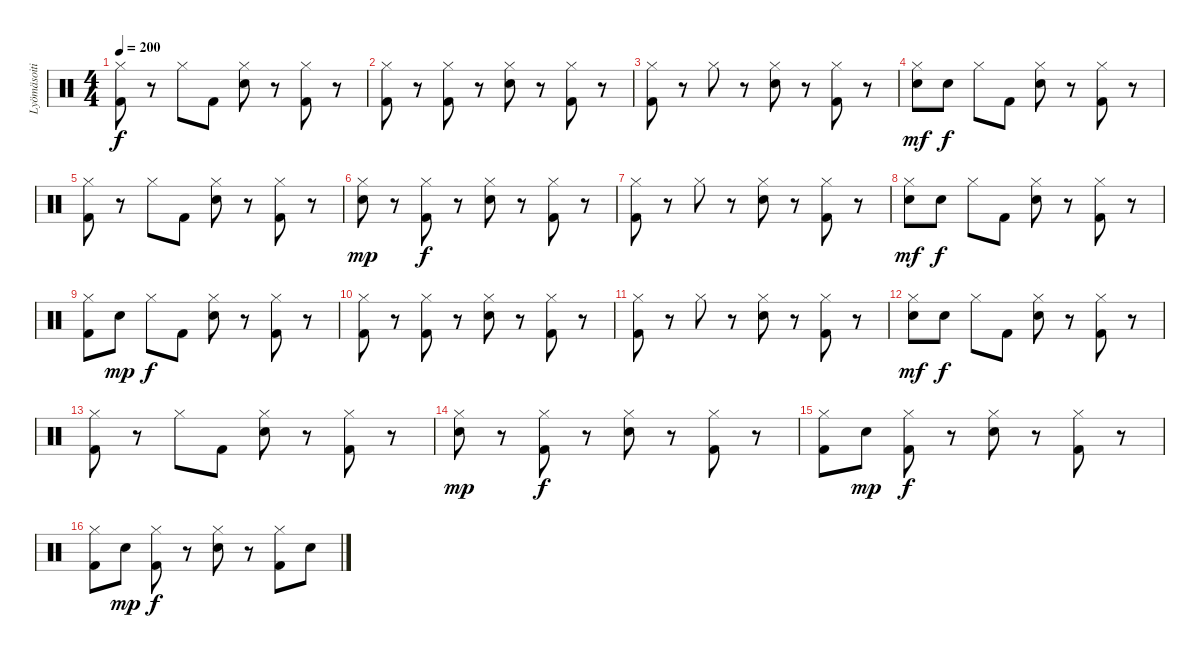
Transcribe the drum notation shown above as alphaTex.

\track ("Lyömäsoitin" "Lyömäsoiti") {instrument percussion}
\staff {score}
\articulation defaults
\ts (4 4)
\tempo 200
\clef neutral
\ks c
("Kick (hit) 2" "Hi-Hat (closed)").8{dy f} r.8 "Hi-Hat (closed)".8 "Kick (hit) 2".8 ("Snare (hit) 2" "Hi-Hat (closed)").8 r.8 ("Hi-Hat (closed)" "Kick (hit) 2").8 r.8 |
("Kick (hit) 2" "Hi-Hat (closed)").8 r.8 ("Kick (hit) 2" "Hi-Hat (closed)").8 r.8 ("Snare (hit) 2" "Hi-Hat (closed)").8 r.8 ("Kick (hit) 2" "Hi-Hat (closed)").8 r.8 |
("Kick (hit) 2" "Hi-Hat (closed)").8 r.8 "Hi-Hat (closed)".8 r.8 ("Snare (hit) 2" "Hi-Hat (closed)").8 r.8 ("Hi-Hat (closed)" "Kick (hit) 2").8 r.8 |
("Snare (hit) 2" "Hi-Hat (closed)").8{dy mf} "Snare (hit) 2".8{dy f} "Hi-Hat (closed)".8 "Kick (hit) 2".8 ("Snare (hit) 2" "Hi-Hat (closed)").8 r.8 ("Kick (hit) 2" "Hi-Hat (closed)").8 r.8 |
("Kick (hit) 2" "Hi-Hat (closed)").8 r.8 "Hi-Hat (closed)".8 "Kick (hit) 2".8 ("Snare (hit) 2" "Hi-Hat (closed)").8 r.8 ("Hi-Hat (closed)" "Kick (hit) 2").8 r.8 |
("Snare (hit) 2" "Hi-Hat (closed)").8{dy mp} r.8 ("Kick (hit) 2" "Hi-Hat (closed)").8{dy f} r.8 ("Snare (hit) 2" "Hi-Hat (closed)").8 r.8 ("Kick (hit) 2" "Hi-Hat (closed)").8 r.8 |
("Kick (hit) 2" "Hi-Hat (closed)").8 r.8 "Hi-Hat (closed)".8 r.8 ("Snare (hit) 2" "Hi-Hat (closed)").8 r.8 ("Hi-Hat (closed)" "Kick (hit) 2").8 r.8 |
("Snare (hit) 2" "Hi-Hat (closed)").8{dy mf} "Snare (hit) 2".8{dy f} "Hi-Hat (closed)".8 "Kick (hit) 2".8 ("Snare (hit) 2" "Hi-Hat (closed)").8 r.8 ("Kick (hit) 2" "Hi-Hat (closed)").8 r.8 |
("Kick (hit) 2" "Hi-Hat (closed)").8 "Snare (hit) 2".8{dy mp} "Hi-Hat (closed)".8{dy f} "Kick (hit) 2".8 ("Snare (hit) 2" "Hi-Hat (closed)").8 r.8 ("Hi-Hat (closed)" "Kick (hit) 2").8 r.8 |
("Kick (hit) 2" "Hi-Hat (closed)").8 r.8 ("Kick (hit) 2" "Hi-Hat (closed)").8 r.8 ("Snare (hit) 2" "Hi-Hat (closed)").8 r.8 ("Kick (hit) 2" "Hi-Hat (closed)").8 r.8 |
("Kick (hit) 2" "Hi-Hat (closed)").8 r.8 "Hi-Hat (closed)".8 r.8 ("Snare (hit) 2" "Hi-Hat (closed)").8 r.8 ("Hi-Hat (closed)" "Kick (hit) 2").8 r.8 |
("Snare (hit) 2" "Hi-Hat (closed)").8{dy mf} "Snare (hit) 2".8{dy f} "Hi-Hat (closed)".8 "Kick (hit) 2".8 ("Snare (hit) 2" "Hi-Hat (closed)").8 r.8 ("Kick (hit) 2" "Hi-Hat (closed)").8 r.8 |
("Kick (hit) 2" "Hi-Hat (closed)").8 r.8 "Hi-Hat (closed)".8 "Kick (hit) 2".8 ("Snare (hit) 2" "Hi-Hat (closed)").8 r.8 ("Hi-Hat (closed)" "Kick (hit) 2").8 r.8 |
("Snare (hit) 2" "Hi-Hat (closed)").8{dy mp} r.8 ("Kick (hit) 2" "Hi-Hat (closed)").8{dy f} r.8 ("Snare (hit) 2" "Hi-Hat (closed)").8 r.8 ("Kick (hit) 2" "Hi-Hat (closed)").8 r.8 |
("Kick (hit) 2" "Hi-Hat (closed)").8 "Snare (hit) 2".8{dy mp} ("Kick (hit) 2" "Hi-Hat (closed)").8{dy f} r.8 ("Snare (hit) 2" "Hi-Hat (closed)").8 r.8 ("Hi-Hat (closed)" "Kick (hit) 2").8 r.8 |
("Kick (hit) 2" "Hi-Hat (closed)").8 "Snare (hit) 2".8{dy mp} ("Kick (hit) 2" "Hi-Hat (closed)").8{dy f} r.8 ("Snare (hit) 2" "Hi-Hat (closed)").8 r.8 ("Kick (hit) 2" "Hi-Hat (closed)").8 "Snare (hit) 2".8
